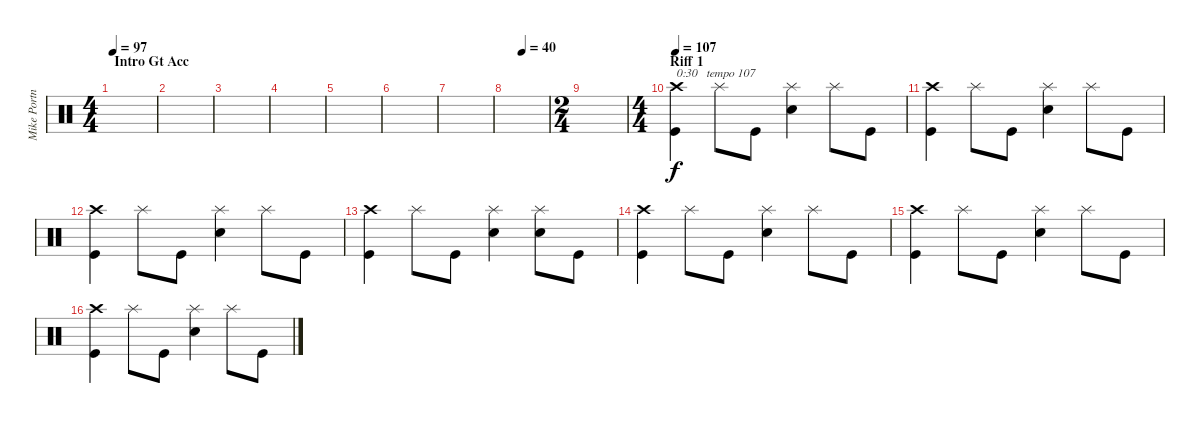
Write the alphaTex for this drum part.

\track ("Mike Portnoy" "Mike Portn") {instrument percussion}
\staff {score}
\articulation defaults
\ts (4 4)
\section ("" "Intro Gt Acc")
\tempo 97
\tempo 72
\tempo 97
\clef neutral
\ks c
|
|
|
|
|
|
|
\tempo (40 0.375)
|
\ts (2 4)
|
\ts (4 4)
\section ("" "Riff 1")
\tempo 107
("Crash high (hit)" "Kick (hit)").4{txt "0:30   tempo 107"} "Splash (hit)".8 "Kick (hit)".8 ("Splash (hit)" "Snare (hit) 2").4 "Splash (hit)".8 "Kick (hit)".8 |
("Crash high (hit)" "Kick (hit)").4 "Splash (hit)".8 "Kick (hit)".8 ("Splash (hit)" "Snare (hit) 2").4 "Splash (hit)".8 "Kick (hit)".8 |
("Crash high (hit)" "Kick (hit)").4 "Splash (hit)".8 "Kick (hit)".8 ("Splash (hit)" "Snare (hit) 2").4 "Splash (hit)".8 "Kick (hit)".8 |
("Crash high (hit)" "Kick (hit)").4 "Splash (hit)".8 "Kick (hit)".8 ("Splash (hit)" "Snare (hit) 2").4 ("Splash (hit)" "Snare (hit) 2").8 "Kick (hit)".8 |
("Crash high (hit)" "Kick (hit)").4 "Splash (hit)".8 "Kick (hit)".8 ("Splash (hit)" "Snare (hit) 2").4 "Splash (hit)".8 "Kick (hit)".8 |
("Crash high (hit)" "Kick (hit)").4 "Splash (hit)".8 "Kick (hit)".8 ("Splash (hit)" "Snare (hit) 2").4 "Splash (hit)".8 "Kick (hit)".8 |
("Crash high (hit)" "Kick (hit)").4 "Splash (hit)".8 "Kick (hit)".8 ("Splash (hit)" "Snare (hit) 2").4 "Splash (hit)".8 "Kick (hit)".8
